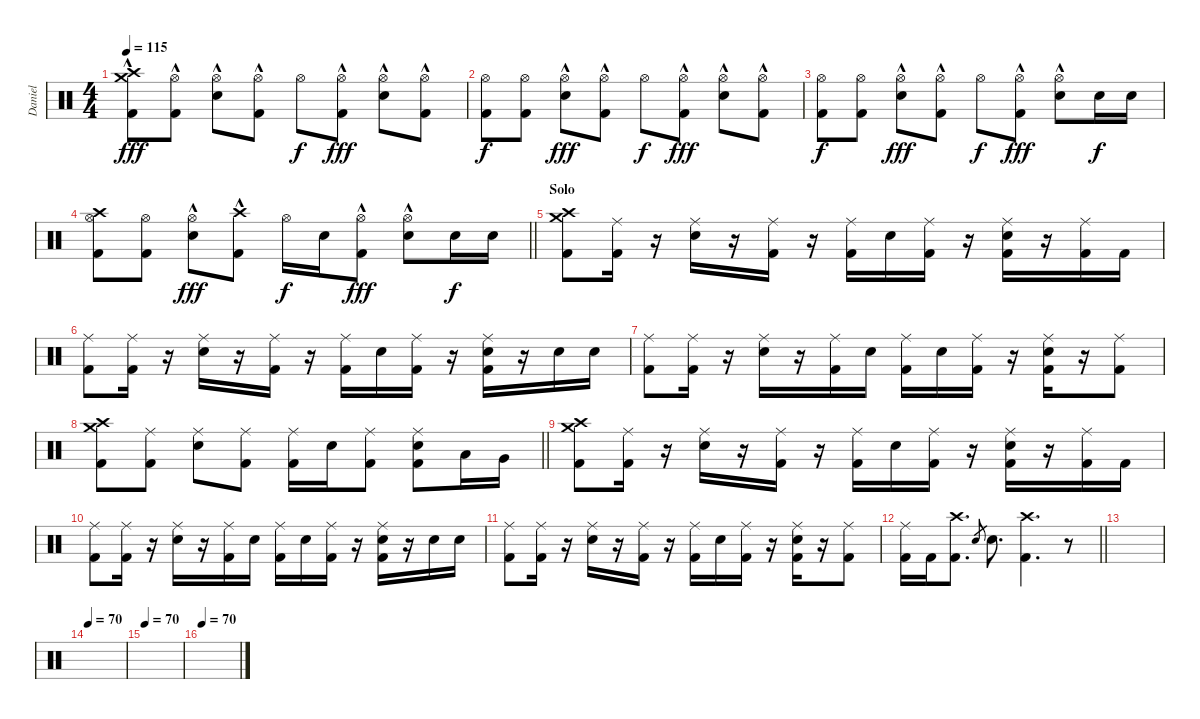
\track ("Daniel" "Daniel") {instrument percussion}
\staff {score}
\articulation defaults
\ts (4 4)
\tempo 115
\clef neutral
\ks c
("Crash medium (hit)" "Crash high (hit)" "Kick (hit) 2"{hac}).8{dy fff} ("Hi-Hat (open)" "Kick (hit) 2"{hac}).8 ("Hi-Hat (open)"{hac} "Snare (hit) 2").8 ("Hi-Hat (open)" "Kick (hit) 2"{hac}).8 "Hi-Hat (open)".8{dy f} ("Hi-Hat (open)" "Kick (hit) 2"{hac}).8{dy fff} ("Hi-Hat (open)"{hac} "Snare (hit) 2").8 ("Hi-Hat (open)" "Kick (hit) 2"{hac}).8 |
("Hi-Hat (open)" "Kick (hit) 2").8{dy f} ("Hi-Hat (open)" "Kick (hit) 2").8 ("Hi-Hat (open)"{hac} "Snare (hit) 2").8{dy fff} ("Hi-Hat (open)" "Kick (hit) 2"{hac}).8 "Hi-Hat (open)".8{dy f} ("Hi-Hat (open)" "Kick (hit) 2"{hac}).8{dy fff} ("Hi-Hat (open)"{hac} "Snare (hit) 2").8 ("Hi-Hat (open)" "Kick (hit) 2"{hac}).8 |
("Hi-Hat (open)" "Kick (hit) 2").8{dy f} ("Hi-Hat (open)" "Kick (hit) 2").8 ("Hi-Hat (open)"{hac} "Snare (hit) 2").8{dy fff} ("Hi-Hat (open)" "Kick (hit) 2"{hac}).8 "Hi-Hat (open)".8{dy f} ("Hi-Hat (open)" "Kick (hit) 2"{hac}).8{dy fff} ("Hi-Hat (open)"{hac} "Snare (hit) 2").8 "Snare (hit) 2".16{dy f} "Snare (hit) 2".16 |
\barLineRight lightlight
("Crash high (hit)" "Hi-Hat (open)" "Kick (hit) 2").8 ("Hi-Hat (open)" "Kick (hit) 2").8 ("Hi-Hat (open)"{hac} "Snare (hit) 2").8{dy fff} ("Crash high (hit)" "Kick (hit) 2"{hac}).8 "Hi-Hat (open)".16{dy f} "Snare (hit) 2".16 ("Hi-Hat (open)" "Kick (hit) 2"{hac}).8{dy fff} ("Hi-Hat (open)"{hac} "Snare (hit) 2").8 "Snare (hit) 2".16{dy f} "Snare (hit) 2".16 |
\section ("" "Solo")
("Crash high (hit)" "Crash medium (hit)" "Kick (hit) 2").8 ("Ride (middle)" "Kick (hit) 2").16 r.16 ("Ride (middle)" "Snare (hit) 2").16 r.16 ("Ride (middle)" "Kick (hit) 2").16 r.16 ("Ride (middle)" "Kick (hit) 2").16 "Snare (hit) 2".16 ("Ride (middle)" "Kick (hit) 2").16 r.16 ("Ride (middle)" "Snare (hit) 2" "Kick (hit) 2").16 r.16 ("Ride (middle)" "Kick (hit) 2").16 "Kick (hit) 2".16 |
("Ride (middle)" "Kick (hit) 2").8 ("Ride (middle)" "Kick (hit) 2").16 r.16 ("Ride (middle)" "Snare (hit) 2").16 r.16 ("Ride (middle)" "Kick (hit) 2").16 r.16 ("Ride (middle)" "Kick (hit) 2").16 "Snare (hit) 2".16 ("Ride (middle)" "Kick (hit) 2").16 r.16 ("Ride (middle)" "Snare (hit) 2" "Kick (hit) 2").16 r.16 "Snare (hit) 2".16 "Snare (hit) 2".16 |
("Ride (middle)" "Kick (hit) 2").8 ("Ride (middle)" "Kick (hit) 2").16 r.16 ("Ride (middle)" "Snare (hit) 2").16 r.16 ("Ride (middle)" "Kick (hit) 2").16 "Snare (hit) 2".16 ("Ride (middle)" "Kick (hit) 2").16 "Snare (hit) 2".16 ("Ride (middle)" "Kick (hit) 2").16 r.16 ("Ride (middle)" "Snare (hit) 2" "Kick (hit) 2").16 r.16 ("Ride (middle)" "Kick (hit) 2").8 |
\barLineRight lightlight
("Crash high (hit)" "Crash medium (hit)" "Kick (hit) 2").8 ("Ride (middle)" "Kick (hit) 2").8 ("Ride (middle)" "Snare (hit) 2").8 ("Ride (middle)" "Kick (hit) 2").8 ("Ride (middle)" "Kick (hit) 2").16 "Snare (hit) 2".16 ("Ride (middle)" "Kick (hit) 2").8 ("Ride (middle)" "Snare (hit) 2" "Kick (hit) 2").8 "Low Tom (hit)".16 "Very Low Tom (hit)".16 |
("Crash high (hit)" "Crash medium (hit)" "Kick (hit) 2").8 ("Ride (middle)" "Kick (hit) 2").16 r.16 ("Ride (middle)" "Snare (hit) 2").16 r.16 ("Ride (middle)" "Kick (hit) 2").16 r.16 ("Ride (middle)" "Kick (hit) 2").16 "Snare (hit) 2".16 ("Ride (middle)" "Kick (hit) 2").16 r.16 ("Ride (middle)" "Snare (hit) 2" "Kick (hit) 2").16 r.16 ("Ride (middle)" "Kick (hit) 2").16 "Kick (hit) 2".16 |
("Ride (middle)" "Kick (hit) 2").8 ("Ride (middle)" "Kick (hit) 2").16 r.16 ("Ride (middle)" "Snare (hit) 2").16 r.16 ("Ride (middle)" "Kick (hit) 2").16 "Snare (hit) 2".16 ("Ride (middle)" "Kick (hit) 2").16 "Snare (hit) 2".16 ("Ride (middle)" "Kick (hit) 2").16 r.16 ("Ride (middle)" "Snare (hit) 2" "Kick (hit) 2").16 r.16 "Snare (hit) 2".16 "Snare (hit) 2".16 |
("Ride (middle)" "Kick (hit) 2").8 ("Ride (middle)" "Kick (hit) 2").16 r.16 ("Ride (middle)" "Snare (hit) 2").16 r.16 ("Ride (middle)" "Kick (hit) 2").16 r.16 ("Ride (middle)" "Kick (hit) 2").16 "Snare (hit) 2".16 ("Ride (middle)" "Kick (hit) 2").16 r.16 ("Ride (middle)" "Snare (hit) 2" "Kick (hit) 2").16 r.16 ("Ride (middle)" "Kick (hit) 2").8 |
\barLineRight lightlight
("Ride (middle)" "Kick (hit) 2").16 "Kick (hit) 2".16 ("Crash high (hit)" "Kick (hit) 2").8{d} "Snare (hit) 2".8{gr} "Snare (hit) 2".8{d} ("Crash high (hit)" "Kick (hit) 2").4{d} r.8 |
|
\tempo 70
|
\tempo 70
|
\tempo 70
